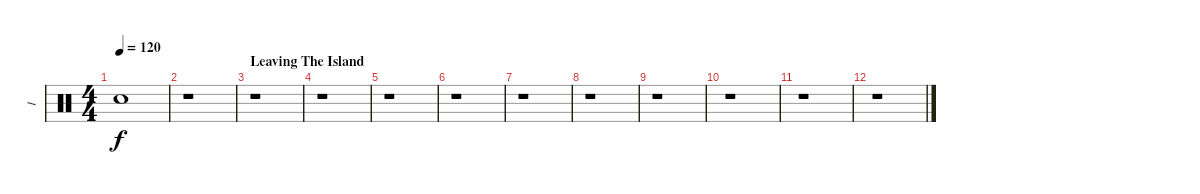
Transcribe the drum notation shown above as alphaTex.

\track ("I" "I") {instrument percussion}
\staff {score}
\articulation defaults
\ts (4 4)
\tempo 120
\clef neutral
\ks c "Snare (hit) 2".1{dy f}
|
r.1 |
\section ("" "Leaving The Island")
r.1 |
r.1 |
r.1 |
r.1 |
r.1 |
r.1 |
r.1 |
r.1 |
r.1 |
r.1
